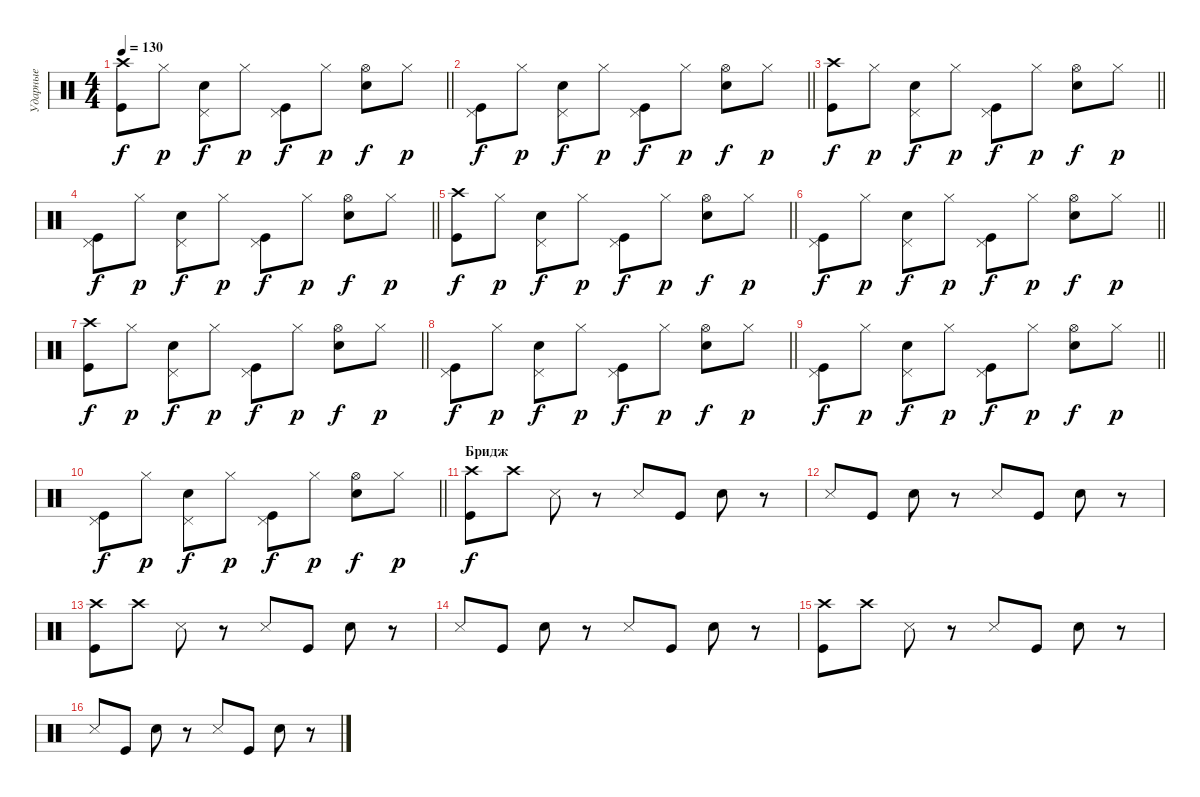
\track ("Ударные" "Ударные") {instrument percussion}
\staff {score}
\articulation defaults
\ts (4 4)
\tempo 130
\clef neutral
\barLineRight lightlight
\ks c
("Crash high (hit)" "Kick (hit)").8{dy f} "Hi-Hat (closed)".8{dy p} ("Pedal Hi-Hat (hit)" "Snare (hit) 2").8{dy f} "Hi-Hat (closed)".8{dy p} ("Pedal Hi-Hat (hit)" "Kick (hit)").8{dy f} "Hi-Hat (closed)".8{dy p} ("Hi-Hat (open)" "Snare (hit) 2").8{dy f} "Hi-Hat (closed)".8{dy p} |
\barLineRight lightlight
("Pedal Hi-Hat (hit)" "Kick (hit)").8{dy f} "Hi-Hat (closed)".8{dy p} ("Pedal Hi-Hat (hit)" "Snare (hit) 2").8{dy f} "Hi-Hat (closed)".8{dy p} ("Pedal Hi-Hat (hit)" "Kick (hit)").8{dy f} "Hi-Hat (closed)".8{dy p} ("Hi-Hat (open)" "Snare (hit) 2").8{dy f} "Hi-Hat (closed)".8{dy p} |
\barLineRight lightlight
("Crash high (hit)" "Kick (hit)").8{dy f} "Hi-Hat (closed)".8{dy p} ("Pedal Hi-Hat (hit)" "Snare (hit) 2").8{dy f} "Hi-Hat (closed)".8{dy p} ("Pedal Hi-Hat (hit)" "Kick (hit)").8{dy f} "Hi-Hat (closed)".8{dy p} ("Hi-Hat (open)" "Snare (hit) 2").8{dy f} "Hi-Hat (closed)".8{dy p} |
\barLineRight lightlight
("Pedal Hi-Hat (hit)" "Kick (hit)").8{dy f} "Hi-Hat (closed)".8{dy p} ("Pedal Hi-Hat (hit)" "Snare (hit) 2").8{dy f} "Hi-Hat (closed)".8{dy p} ("Pedal Hi-Hat (hit)" "Kick (hit)").8{dy f} "Hi-Hat (closed)".8{dy p} ("Hi-Hat (open)" "Snare (hit) 2").8{dy f} "Hi-Hat (closed)".8{dy p} |
\barLineRight lightlight
("Crash high (hit)" "Kick (hit)").8{dy f} "Hi-Hat (closed)".8{dy p} ("Pedal Hi-Hat (hit)" "Snare (hit) 2").8{dy f} "Hi-Hat (closed)".8{dy p} ("Pedal Hi-Hat (hit)" "Kick (hit)").8{dy f} "Hi-Hat (closed)".8{dy p} ("Hi-Hat (open)" "Snare (hit) 2").8{dy f} "Hi-Hat (closed)".8{dy p} |
\barLineRight lightlight
("Pedal Hi-Hat (hit)" "Kick (hit)").8{dy f} "Hi-Hat (closed)".8{dy p} ("Pedal Hi-Hat (hit)" "Snare (hit) 2").8{dy f} "Hi-Hat (closed)".8{dy p} ("Pedal Hi-Hat (hit)" "Kick (hit)").8{dy f} "Hi-Hat (closed)".8{dy p} ("Hi-Hat (open)" "Snare (hit) 2").8{dy f} "Hi-Hat (closed)".8{dy p} |
\barLineRight lightlight
("Crash high (hit)" "Kick (hit)").8{dy f} "Hi-Hat (closed)".8{dy p} ("Pedal Hi-Hat (hit)" "Snare (hit) 2").8{dy f} "Hi-Hat (closed)".8{dy p} ("Pedal Hi-Hat (hit)" "Kick (hit)").8{dy f} "Hi-Hat (closed)".8{dy p} ("Hi-Hat (open)" "Snare (hit) 2").8{dy f} "Hi-Hat (closed)".8{dy p} |
\barLineRight lightlight
("Pedal Hi-Hat (hit)" "Kick (hit)").8{dy f} "Hi-Hat (closed)".8{dy p} ("Pedal Hi-Hat (hit)" "Snare (hit) 2").8{dy f} "Hi-Hat (closed)".8{dy p} ("Pedal Hi-Hat (hit)" "Kick (hit)").8{dy f} "Hi-Hat (closed)".8{dy p} ("Hi-Hat (open)" "Snare (hit) 2").8{dy f} "Hi-Hat (closed)".8{dy p} |
\barLineRight lightlight
("Pedal Hi-Hat (hit)" "Kick (hit)").8{dy f} "Hi-Hat (closed)".8{dy p} ("Pedal Hi-Hat (hit)" "Snare (hit) 2").8{dy f} "Hi-Hat (closed)".8{dy p} ("Pedal Hi-Hat (hit)" "Kick (hit)").8{dy f} "Hi-Hat (closed)".8{dy p} ("Hi-Hat (open)" "Snare (hit) 2").8{dy f} "Hi-Hat (closed)".8{dy p} |
\barLineRight lightlight
("Pedal Hi-Hat (hit)" "Kick (hit)").8{dy f} "Hi-Hat (closed)".8{dy p} ("Pedal Hi-Hat (hit)" "Snare (hit) 2").8{dy f} "Hi-Hat (closed)".8{dy p} ("Pedal Hi-Hat (hit)" "Kick (hit)").8{dy f} "Hi-Hat (closed)".8{dy p} ("Hi-Hat (open)" "Snare (hit) 2").8{dy f} "Hi-Hat (closed)".8{dy p} |
\section ("" "Бридж")
("Crash high (hit)" "Kick (hit)").8{dy f} "Crash high (hit)".8 "Snare (side stick) 3".8 r.8 "Snare (side stick) 3".8 "Kick (hit)".8 "Snare (hit) 2".8 r.8 |
"Snare (side stick) 3".8 "Kick (hit)".8 "Snare (hit) 2".8 r.8 "Snare (side stick) 3".8 "Kick (hit)".8 "Snare (hit) 2".8 r.8 |
("Crash high (hit)" "Kick (hit)").8 "Crash high (hit)".8 "Snare (side stick) 3".8 r.8 "Snare (side stick) 3".8 "Kick (hit)".8 "Snare (hit) 2".8 r.8 |
"Snare (side stick) 3".8 "Kick (hit)".8 "Snare (hit) 2".8 r.8 "Snare (side stick) 3".8 "Kick (hit)".8 "Snare (hit) 2".8 r.8 |
("Crash high (hit)" "Kick (hit)").8 "Crash high (hit)".8 "Snare (side stick) 3".8 r.8 "Snare (side stick) 3".8 "Kick (hit)".8 "Snare (hit) 2".8 r.8 |
"Snare (side stick) 3".8 "Kick (hit)".8 "Snare (hit) 2".8 r.8 "Snare (side stick) 3".8 "Kick (hit)".8 "Snare (hit) 2".8 r.8
